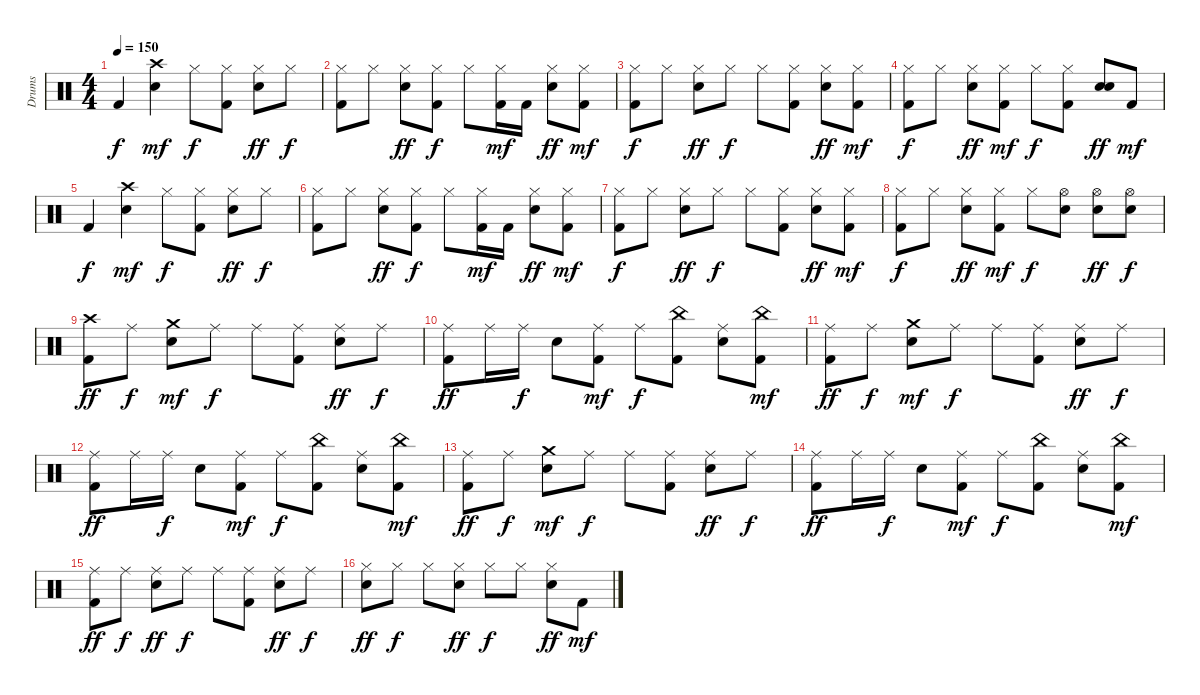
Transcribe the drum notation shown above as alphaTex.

\track ("Drums" "Drums") {instrument percussion}
\staff {score}
\articulation defaults
\ts (4 4)
\tempo 150
\clef neutral
\ks c "Kick (hit) 2".4{dy f}
("Crash high (hit)" "Snare (hit) 2").4{dy mf} "Hi-Hat (closed)".8{dy f} ("Hi-Hat (closed)" "Kick (hit) 2").8 ("Hi-Hat (closed)" "Snare (hit) 2").8{dy ff} "Hi-Hat (closed)".8{dy f} |
("Hi-Hat (closed)" "Kick (hit) 2").8 "Hi-Hat (closed)".8 ("Hi-Hat (closed)" "Snare (hit) 2").8{dy ff} ("Hi-Hat (closed)" "Kick (hit) 2").8{dy f} "Hi-Hat (closed)".8 ("Hi-Hat (closed)" "Kick (hit) 2").16{dy mf} "Kick (hit) 2".16 ("Hi-Hat (closed)" "Snare (hit) 2").8{dy ff} ("Hi-Hat (closed)" "Kick (hit) 2").8{dy mf} |
("Kick (hit) 2" "Hi-Hat (closed)").8{dy f} "Hi-Hat (closed)".8 ("Snare (hit) 2" "Hi-Hat (closed)").8{dy ff} "Hi-Hat (closed)".8{dy f} "Hi-Hat (closed)".8 ("Kick (hit) 2" "Hi-Hat (closed)").8 ("Snare (hit) 2" "Hi-Hat (closed)").8{dy ff} ("Kick (hit) 2" "Hi-Hat (closed)").8{dy mf} |
("Kick (hit) 2" "Hi-Hat (closed)").8{dy f} "Hi-Hat (closed)".8 ("Hi-Hat (closed)" "Snare (hit) 2").8{dy ff} ("Kick (hit) 2" "Hi-Hat (closed)").8{dy mf} "Hi-Hat (closed)".8{dy f} ("Kick (hit) 2" "Hi-Hat (closed)").8 ("Snare (hit) 2" "Snare (hit) 2").8{dy ff} "Kick (hit) 2".8{dy mf} |
"Kick (hit) 2".4{dy f} ("Crash high (hit)" "Snare (hit) 2").4{dy mf} "Hi-Hat (closed)".8{dy f} ("Hi-Hat (closed)" "Kick (hit) 2").8 ("Hi-Hat (closed)" "Snare (hit) 2").8{dy ff} "Hi-Hat (closed)".8{dy f} |
("Hi-Hat (closed)" "Kick (hit) 2").8 "Hi-Hat (closed)".8 ("Hi-Hat (closed)" "Snare (hit) 2").8{dy ff} ("Hi-Hat (closed)" "Kick (hit) 2").8{dy f} "Hi-Hat (closed)".8 ("Hi-Hat (closed)" "Kick (hit) 2").16{dy mf} "Kick (hit) 2".16 ("Hi-Hat (closed)" "Snare (hit) 2").8{dy ff} ("Hi-Hat (closed)" "Kick (hit) 2").8{dy mf} |
("Kick (hit) 2" "Hi-Hat (closed)").8{dy f} "Hi-Hat (closed)".8 ("Snare (hit) 2" "Hi-Hat (closed)").8{dy ff} "Hi-Hat (closed)".8{dy f} "Hi-Hat (closed)".8 ("Kick (hit) 2" "Hi-Hat (closed)").8 ("Snare (hit) 2" "Hi-Hat (closed)").8{dy ff} ("Kick (hit) 2" "Hi-Hat (closed)").8{dy mf} |
("Kick (hit) 2" "Hi-Hat (closed)").8{dy f} "Hi-Hat (closed)".8 ("Hi-Hat (closed)" "Snare (hit) 2").8{dy ff} ("Kick (hit) 2" "Hi-Hat (closed)").8{dy mf} "Hi-Hat (closed)".8{dy f} ("Hi-Hat (open)" "Snare (hit) 2").8 ("Hi-Hat (open)" "Snare (hit) 2").8{dy ff} ("Hi-Hat (open)" "Snare (hit) 2").8{dy f} |
("Crash high (hit)" "Kick (hit) 2").8{dy ff} "Ride (middle)".8{dy f} ("Crash medium (hit)" "Snare (hit) 2").8{dy mf} "Ride (middle)".8{dy f} "Ride (middle)".8 ("Ride (middle)" "Kick (hit) 2").8 ("Ride (middle)" "Snare (hit) 2").8{dy ff} "Ride (middle)".8{dy f} |
("Ride (middle)" "Kick (hit) 2").8{dy ff} "Ride (middle)".16 "Ride (middle)".16{dy f} "Snare (hit) 2".8 ("Ride (middle)" "Kick (hit) 2").8{dy mf} "Ride (middle)".8{dy f} ("China (hit)" "Kick (hit) 2").8 ("Ride (middle)" "Snare (hit) 2").8 ("China (hit)" "Kick (hit) 2").8{dy mf} |
("Ride (middle)" "Kick (hit) 2").8{dy ff} "Ride (middle)".8{dy f} ("Crash medium (hit)" "Snare (hit) 2").8{dy mf} "Ride (middle)".8{dy f} "Ride (middle)".8 ("Ride (middle)" "Kick (hit) 2").8 ("Ride (middle)" "Snare (hit) 2").8{dy ff} "Ride (middle)".8{dy f} |
("Ride (middle)" "Kick (hit) 2").8{dy ff} "Ride (middle)".16 "Ride (middle)".16{dy f} "Snare (hit) 2".8 ("Ride (middle)" "Kick (hit) 2").8{dy mf} "Ride (middle)".8{dy f} ("China (hit)" "Kick (hit) 2").8 ("Ride (middle)" "Snare (hit) 2").8 ("China (hit)" "Kick (hit) 2").8{dy mf} |
("Ride (middle)" "Kick (hit) 2").8{dy ff} "Ride (middle)".8{dy f} ("Crash medium (hit)" "Snare (hit) 2").8{dy mf} "Ride (middle)".8{dy f} "Ride (middle)".8 ("Ride (middle)" "Kick (hit) 2").8 ("Ride (middle)" "Snare (hit) 2").8{dy ff} "Ride (middle)".8{dy f} |
("Ride (middle)" "Kick (hit) 2").8{dy ff} "Ride (middle)".16 "Ride (middle)".16{dy f} "Snare (hit) 2".8 ("Ride (middle)" "Kick (hit) 2").8{dy mf} "Ride (middle)".8{dy f} ("China (hit)" "Kick (hit) 2").8 ("Ride (middle)" "Snare (hit) 2").8 ("China (hit)" "Kick (hit) 2").8{dy mf} |
("Ride (middle)" "Kick (hit) 2").8{dy ff} "Ride (middle)".8{dy f} ("Ride (middle)" "Snare (hit) 2").8{dy ff} "Ride (middle)".8{dy f} "Ride (middle)".8 ("Ride (middle)" "Kick (hit) 2").8 ("Ride (middle)" "Snare (hit) 2").8{dy ff} "Ride (middle)".8{dy f} |
("Hi-Hat (closed)" "Snare (hit) 2").8{dy ff} "Hi-Hat (closed)".8{dy f} "Hi-Hat (closed)".8 ("Hi-Hat (closed)" "Snare (hit) 2").8{dy ff} "Hi-Hat (closed)".8{dy f} "Hi-Hat (closed)".8 ("Hi-Hat (closed)" "Snare (hit) 2").8{dy ff} "Kick (hit) 2".8{dy mf}
